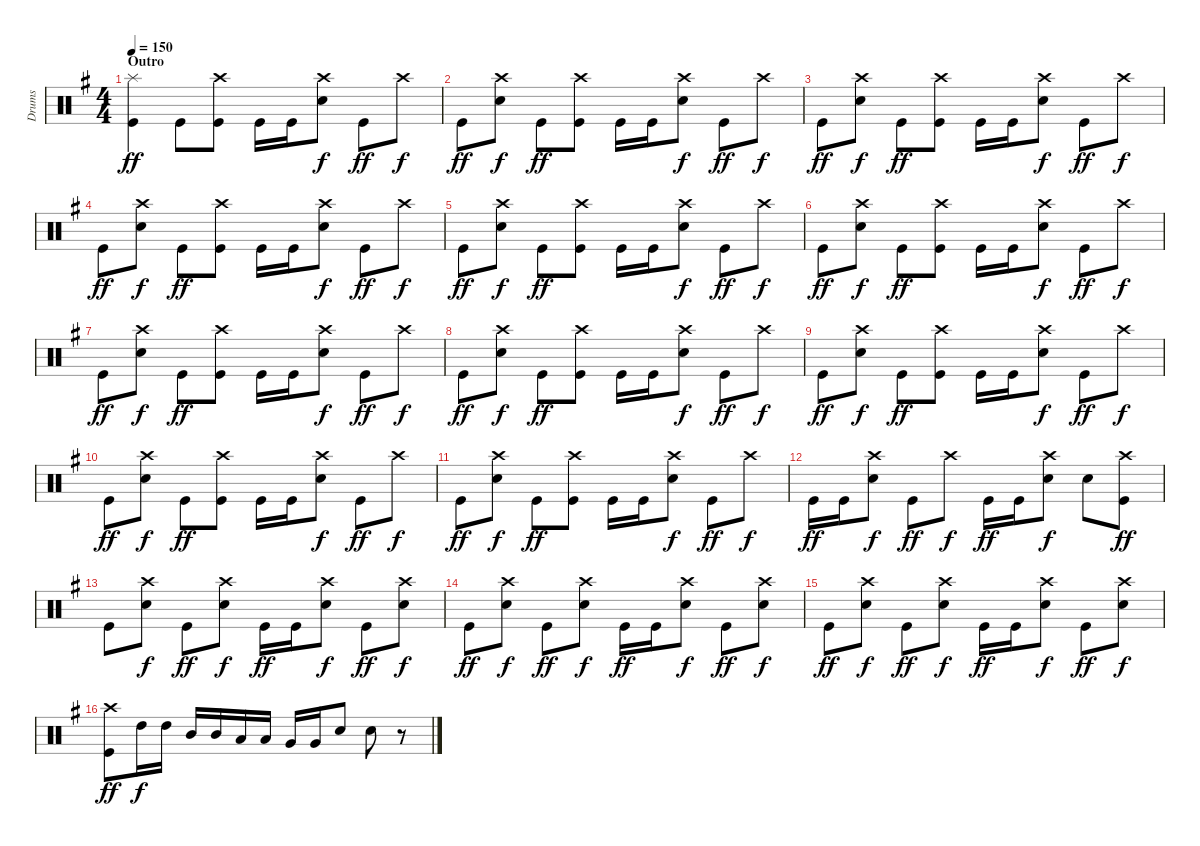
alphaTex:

\track ("Drums" "Drums") {instrument percussion}
\staff {score}
\articulation defaults
\ts (4 4)
\section ("" "Outro")
\tempo 150
\clef neutral
\ks g
("Splash (hit)" "Kick (hit)").4{dy ff} "Kick (hit)".8 ("Crash high (hit)" "Kick (hit)").8 "Kick (hit)".16 "Kick (hit)".16 ("Crash high (hit)" "Electric Snare (hit)").8{dy f} "Kick (hit)".8{dy ff} "Crash high (hit)".8{dy f} |
"Kick (hit)".8{dy ff} ("Crash high (hit)" "Electric Snare (hit)").8{dy f} "Kick (hit)".8{dy ff} ("Crash high (hit)" "Kick (hit)").8 "Kick (hit)".16 "Kick (hit)".16 ("Crash high (hit)" "Electric Snare (hit)").8{dy f} "Kick (hit)".8{dy ff} "Crash high (hit)".8{dy f} |
"Kick (hit)".8{dy ff} ("Crash high (hit)" "Electric Snare (hit)").8{dy f} "Kick (hit)".8{dy ff} ("Crash high (hit)" "Kick (hit)").8 "Kick (hit)".16 "Kick (hit)".16 ("Crash high (hit)" "Electric Snare (hit)").8{dy f} "Kick (hit)".8{dy ff} "Crash high (hit)".8{dy f} |
"Kick (hit)".8{dy ff} ("Crash high (hit)" "Electric Snare (hit)").8{dy f} "Kick (hit)".8{dy ff} ("Crash high (hit)" "Kick (hit)").8 "Kick (hit)".16 "Kick (hit)".16 ("Crash high (hit)" "Electric Snare (hit)").8{dy f} "Kick (hit)".8{dy ff} "Crash high (hit)".8{dy f} |
"Kick (hit)".8{dy ff} ("Crash high (hit)" "Electric Snare (hit)").8{dy f} "Kick (hit)".8{dy ff} ("Crash high (hit)" "Kick (hit)").8 "Kick (hit)".16 "Kick (hit)".16 ("Crash high (hit)" "Electric Snare (hit)").8{dy f} "Kick (hit)".8{dy ff} "Crash high (hit)".8{dy f} |
"Kick (hit)".8{dy ff} ("Crash high (hit)" "Electric Snare (hit)").8{dy f} "Kick (hit)".8{dy ff} ("Crash high (hit)" "Kick (hit)").8 "Kick (hit)".16 "Kick (hit)".16 ("Crash high (hit)" "Electric Snare (hit)").8{dy f} "Kick (hit)".8{dy ff} "Crash high (hit)".8{dy f} |
"Kick (hit)".8{dy ff} ("Crash high (hit)" "Electric Snare (hit)").8{dy f} "Kick (hit)".8{dy ff} ("Crash high (hit)" "Kick (hit)").8 "Kick (hit)".16 "Kick (hit)".16 ("Crash high (hit)" "Electric Snare (hit)").8{dy f} "Kick (hit)".8{dy ff} "Crash high (hit)".8{dy f} |
"Kick (hit)".8{dy ff} ("Crash high (hit)" "Electric Snare (hit)").8{dy f} "Kick (hit)".8{dy ff} ("Crash high (hit)" "Kick (hit)").8 "Kick (hit)".16 "Kick (hit)".16 ("Crash high (hit)" "Electric Snare (hit)").8{dy f} "Kick (hit)".8{dy ff} "Crash high (hit)".8{dy f} |
"Kick (hit)".8{dy ff} ("Crash high (hit)" "Electric Snare (hit)").8{dy f} "Kick (hit)".8{dy ff} ("Crash high (hit)" "Kick (hit)").8 "Kick (hit)".16 "Kick (hit)".16 ("Crash high (hit)" "Electric Snare (hit)").8{dy f} "Kick (hit)".8{dy ff} "Crash high (hit)".8{dy f} |
"Kick (hit)".8{dy ff} ("Crash high (hit)" "Electric Snare (hit)").8{dy f} "Kick (hit)".8{dy ff} ("Crash high (hit)" "Kick (hit)").8 "Kick (hit)".16 "Kick (hit)".16 ("Crash high (hit)" "Electric Snare (hit)").8{dy f} "Kick (hit)".8{dy ff} "Crash high (hit)".8{dy f} |
"Kick (hit)".8{dy ff} ("Crash high (hit)" "Electric Snare (hit)").8{dy f} "Kick (hit)".8{dy ff} ("Crash high (hit)" "Kick (hit)").8 "Kick (hit)".16 "Kick (hit)".16 ("Crash high (hit)" "Electric Snare (hit)").8{dy f} "Kick (hit)".8{dy ff} "Crash high (hit)".8{dy f} |
"Kick (hit)".16{dy ff} "Kick (hit)".16 ("Crash high (hit)" "Electric Snare (hit)").8{dy f} "Kick (hit)".8{dy ff} "Crash high (hit)".8{dy f} "Kick (hit)".16{dy ff} "Kick (hit)".16 ("Crash high (hit)" "Electric Snare (hit)").8{dy f} "Electric Snare (hit)".8 ("Crash high (hit)" "Kick (hit)").8{dy ff} |
"Kick (hit)".8 ("Crash high (hit)" "Electric Snare (hit)").8{dy f} "Kick (hit)".8{dy ff} ("Crash high (hit)" "Electric Snare (hit)").8{dy f} "Kick (hit)".16{dy ff} "Kick (hit)".16 ("Crash high (hit)" "Electric Snare (hit)").8{dy f} "Kick (hit)".8{dy ff} ("Crash high (hit)" "Electric Snare (hit)").8{dy f} |
"Kick (hit)".8{dy ff} ("Crash high (hit)" "Electric Snare (hit)").8{dy f} "Kick (hit)".8{dy ff} ("Crash high (hit)" "Electric Snare (hit)").8{dy f} "Kick (hit)".16{dy ff} "Kick (hit)".16 ("Crash high (hit)" "Electric Snare (hit)").8{dy f} "Kick (hit)".8{dy ff} ("Crash high (hit)" "Electric Snare (hit)").8{dy f} |
"Kick (hit)".8{dy ff} ("Crash high (hit)" "Electric Snare (hit)").8{dy f} "Kick (hit)".8{dy ff} ("Crash high (hit)" "Electric Snare (hit)").8{dy f} "Kick (hit)".16{dy ff} "Kick (hit)".16 ("Crash high (hit)" "Electric Snare (hit)").8{dy f} "Kick (hit)".8{dy ff} ("Crash high (hit)" "Electric Snare (hit)").8{dy f} |
("Crash high (hit)" "Kick (hit)").8{dy ff} "High Tom (hit)".16{dy f} "High Tom (hit)".16 "Mid Tom (hit)".16 "Mid Tom (hit)".16 "Low Tom (hit)".16 "Low Tom (hit)".16 "Very Low Tom (hit)".16 "Very Low Tom (hit)".16 "Electric Snare (hit)".8 "Electric Snare (hit)".8 r.8
